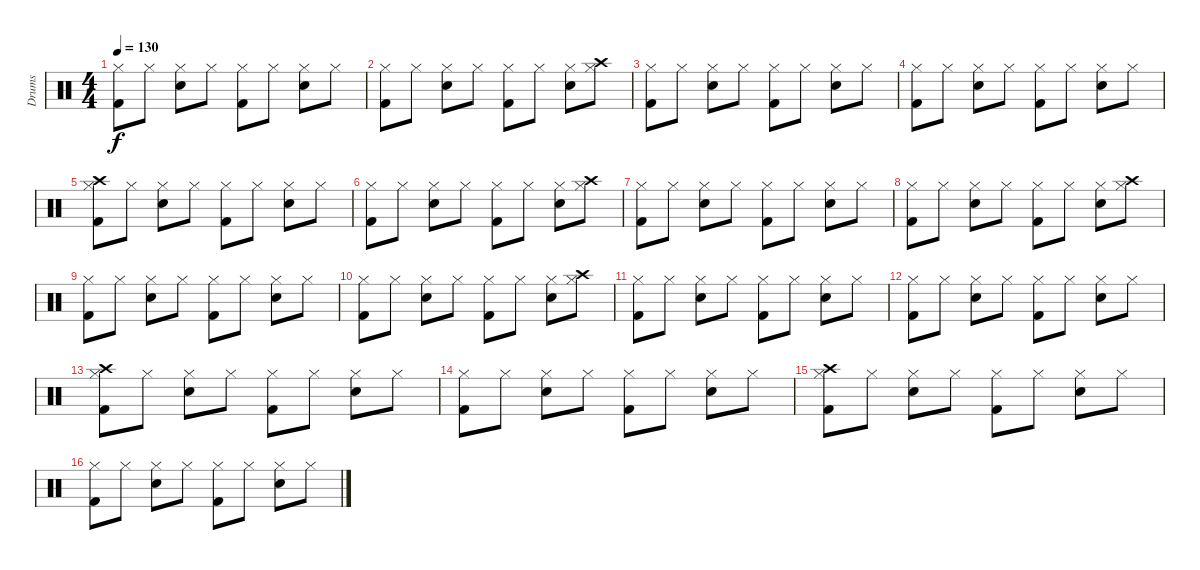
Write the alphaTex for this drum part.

\track ("Drums" "Drums") {instrument percussion}
\staff {score}
\articulation defaults
\ts (4 4)
\tempo 130
\clef neutral
\ks c
("Kick (hit) 2" "Hi-Hat (closed)").8{dy f} "Hi-Hat (closed)".8 ("Snare (hit) 2" "Hi-Hat (closed)").8 "Hi-Hat (closed)".8 ("Kick (hit) 2" "Hi-Hat (closed)").8 "Hi-Hat (closed)".8 ("Snare (hit) 2" "Hi-Hat (closed)").8 "Hi-Hat (closed)".8 |
("Kick (hit) 2" "Hi-Hat (closed)").8 "Hi-Hat (closed)".8 ("Snare (hit) 2" "Hi-Hat (closed)").8 "Hi-Hat (closed)".8 ("Kick (hit) 2" "Hi-Hat (closed)").8 "Hi-Hat (closed)".8 ("Snare (hit) 2" "Hi-Hat (closed)").8 ("Hi-Hat (closed)" "Crash high (hit)").8 |
("Kick (hit) 2" "Hi-Hat (closed)").8 "Hi-Hat (closed)".8 ("Snare (hit) 2" "Hi-Hat (closed)").8 "Hi-Hat (closed)".8 ("Kick (hit) 2" "Hi-Hat (closed)").8 "Hi-Hat (closed)".8 ("Snare (hit) 2" "Hi-Hat (closed)").8 "Hi-Hat (closed)".8 |
("Kick (hit) 2" "Hi-Hat (closed)").8 "Hi-Hat (closed)".8 ("Snare (hit) 2" "Hi-Hat (closed)").8 "Hi-Hat (closed)".8 ("Kick (hit) 2" "Hi-Hat (closed)").8 "Hi-Hat (closed)".8 ("Snare (hit) 2" "Hi-Hat (closed)").8 "Hi-Hat (closed)".8 |
("Kick (hit) 2" "Hi-Hat (closed)" "Crash high (hit)").8 "Hi-Hat (closed)".8 ("Snare (hit) 2" "Hi-Hat (closed)").8 "Hi-Hat (closed)".8 ("Kick (hit) 2" "Hi-Hat (closed)").8 "Hi-Hat (closed)".8 ("Snare (hit) 2" "Hi-Hat (closed)").8 "Hi-Hat (closed)".8 |
("Kick (hit) 2" "Hi-Hat (closed)").8 "Hi-Hat (closed)".8 ("Snare (hit) 2" "Hi-Hat (closed)").8 "Hi-Hat (closed)".8 ("Kick (hit) 2" "Hi-Hat (closed)").8 "Hi-Hat (closed)".8 ("Snare (hit) 2" "Hi-Hat (closed)").8 ("Hi-Hat (closed)" "Crash high (hit)").8 |
("Kick (hit) 2" "Hi-Hat (closed)").8 "Hi-Hat (closed)".8 ("Snare (hit) 2" "Hi-Hat (closed)").8 "Hi-Hat (closed)".8 ("Kick (hit) 2" "Hi-Hat (closed)").8 "Hi-Hat (closed)".8 ("Snare (hit) 2" "Hi-Hat (closed)").8 "Hi-Hat (closed)".8 |
("Kick (hit) 2" "Hi-Hat (closed)").8 "Hi-Hat (closed)".8 ("Snare (hit) 2" "Hi-Hat (closed)").8 "Hi-Hat (closed)".8 ("Kick (hit) 2" "Hi-Hat (closed)").8 "Hi-Hat (closed)".8 ("Snare (hit) 2" "Hi-Hat (closed)").8 ("Hi-Hat (closed)" "Crash high (hit)").8 |
("Kick (hit) 2" "Hi-Hat (closed)").8 "Hi-Hat (closed)".8 ("Snare (hit) 2" "Hi-Hat (closed)").8 "Hi-Hat (closed)".8 ("Kick (hit) 2" "Hi-Hat (closed)").8 "Hi-Hat (closed)".8 ("Snare (hit) 2" "Hi-Hat (closed)").8 "Hi-Hat (closed)".8 |
("Kick (hit) 2" "Hi-Hat (closed)").8 "Hi-Hat (closed)".8 ("Snare (hit) 2" "Hi-Hat (closed)").8 "Hi-Hat (closed)".8 ("Kick (hit) 2" "Hi-Hat (closed)").8 "Hi-Hat (closed)".8 ("Snare (hit) 2" "Hi-Hat (closed)").8 ("Hi-Hat (closed)" "Crash high (hit)").8 |
("Kick (hit) 2" "Hi-Hat (closed)").8 "Hi-Hat (closed)".8 ("Snare (hit) 2" "Hi-Hat (closed)").8 "Hi-Hat (closed)".8 ("Kick (hit) 2" "Hi-Hat (closed)").8 "Hi-Hat (closed)".8 ("Snare (hit) 2" "Hi-Hat (closed)").8 "Hi-Hat (closed)".8 |
("Kick (hit) 2" "Hi-Hat (closed)").8 "Hi-Hat (closed)".8 ("Snare (hit) 2" "Hi-Hat (closed)").8 "Hi-Hat (closed)".8 ("Kick (hit) 2" "Hi-Hat (closed)").8 "Hi-Hat (closed)".8 ("Snare (hit) 2" "Hi-Hat (closed)").8 "Hi-Hat (closed)".8 |
("Kick (hit) 2" "Hi-Hat (closed)" "Crash high (hit)").8 "Hi-Hat (closed)".8 ("Snare (hit) 2" "Hi-Hat (closed)").8 "Hi-Hat (closed)".8 ("Kick (hit) 2" "Hi-Hat (closed)").8 "Hi-Hat (closed)".8 ("Snare (hit) 2" "Hi-Hat (closed)").8 "Hi-Hat (closed)".8 |
("Kick (hit) 2" "Hi-Hat (closed)").8 "Hi-Hat (closed)".8 ("Snare (hit) 2" "Hi-Hat (closed)").8 "Hi-Hat (closed)".8 ("Kick (hit) 2" "Hi-Hat (closed)").8 "Hi-Hat (closed)".8 ("Snare (hit) 2" "Hi-Hat (closed)").8 "Hi-Hat (closed)".8 |
("Kick (hit) 2" "Hi-Hat (closed)" "Crash high (hit)").8 "Hi-Hat (closed)".8 ("Snare (hit) 2" "Hi-Hat (closed)").8 "Hi-Hat (closed)".8 ("Kick (hit) 2" "Hi-Hat (closed)").8 "Hi-Hat (closed)".8 ("Snare (hit) 2" "Hi-Hat (closed)").8 "Hi-Hat (closed)".8 |
("Kick (hit) 2" "Hi-Hat (closed)").8 "Hi-Hat (closed)".8 ("Snare (hit) 2" "Hi-Hat (closed)").8 "Hi-Hat (closed)".8 ("Kick (hit) 2" "Hi-Hat (closed)").8 "Hi-Hat (closed)".8 ("Snare (hit) 2" "Hi-Hat (closed)").8 "Hi-Hat (closed)".8
